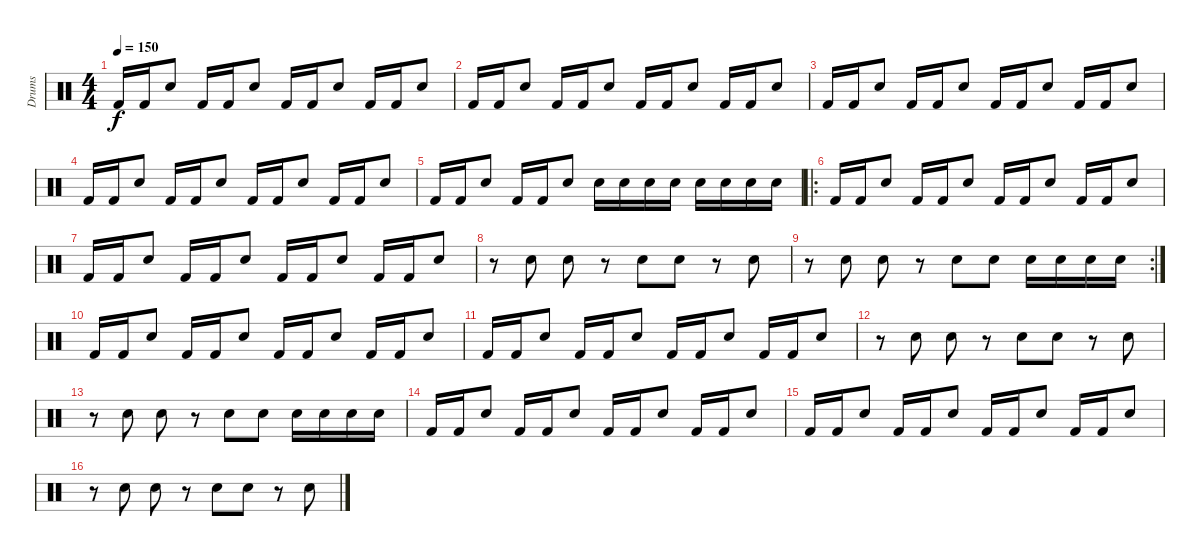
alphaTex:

\track ("Drums" "Drums") {instrument percussion}
\staff {score}
\articulation defaults
\ts (4 4)
\tempo 150
\clef neutral
\ks c "Kick (hit) 2".16{dy f} "Kick (hit) 2".16 "Snare (hit) 2".8 "Kick (hit) 2".16 "Kick (hit) 2".16 "Snare (hit) 2".8 "Kick (hit) 2".16 "Kick (hit) 2".16 "Snare (hit) 2".8 "Kick (hit) 2".16 "Kick (hit) 2".16 "Snare (hit) 2".8
|
"Kick (hit) 2".16 "Kick (hit) 2".16 "Snare (hit) 2".8 "Kick (hit) 2".16 "Kick (hit) 2".16 "Snare (hit) 2".8 "Kick (hit) 2".16 "Kick (hit) 2".16 "Snare (hit) 2".8 "Kick (hit) 2".16 "Kick (hit) 2".16 "Snare (hit) 2".8 |
"Kick (hit) 2".16 "Kick (hit) 2".16 "Snare (hit) 2".8 "Kick (hit) 2".16 "Kick (hit) 2".16 "Snare (hit) 2".8 "Kick (hit) 2".16 "Kick (hit) 2".16 "Snare (hit) 2".8 "Kick (hit) 2".16 "Kick (hit) 2".16 "Snare (hit) 2".8 |
"Kick (hit) 2".16 "Kick (hit) 2".16 "Snare (hit) 2".8 "Kick (hit) 2".16 "Kick (hit) 2".16 "Snare (hit) 2".8 "Kick (hit) 2".16 "Kick (hit) 2".16 "Snare (hit) 2".8 "Kick (hit) 2".16 "Kick (hit) 2".16 "Snare (hit) 2".8 |
"Kick (hit) 2".16 "Kick (hit) 2".16 "Snare (hit) 2".8 "Kick (hit) 2".16 "Kick (hit) 2".16 "Snare (hit) 2".8 "Snare (hit) 2".16 "Snare (hit) 2".16 "Snare (hit) 2".16 "Snare (hit) 2".16 "Snare (hit) 2".16 "Snare (hit) 2".16 "Snare (hit) 2".16 "Snare (hit) 2".16 |
\ro "Kick (hit) 2".16 "Kick (hit) 2".16 "Snare (hit) 2".8 "Kick (hit) 2".16 "Kick (hit) 2".16 "Snare (hit) 2".8 "Kick (hit) 2".16 "Kick (hit) 2".16 "Snare (hit) 2".8 "Kick (hit) 2".16 "Kick (hit) 2".16 "Snare (hit) 2".8
|
"Kick (hit) 2".16 "Kick (hit) 2".16 "Snare (hit) 2".8 "Kick (hit) 2".16 "Kick (hit) 2".16 "Snare (hit) 2".8 "Kick (hit) 2".16 "Kick (hit) 2".16 "Snare (hit) 2".8 "Kick (hit) 2".16 "Kick (hit) 2".16 "Snare (hit) 2".8 |
r.8 "Snare (hit) 2".8 "Snare (hit) 2".8 r.8 "Snare (hit) 2".8 "Snare (hit) 2".8 r.8 "Snare (hit) 2".8 |
\rc 2
r.8 "Snare (hit) 2".8 "Snare (hit) 2".8 r.8 "Snare (hit) 2".8 "Snare (hit) 2".8 "Snare (hit) 2".16 "Snare (hit) 2".16 "Snare (hit) 2".16 "Snare (hit) 2".16 |
"Kick (hit) 2".16 "Kick (hit) 2".16 "Snare (hit) 2".8 "Kick (hit) 2".16 "Kick (hit) 2".16 "Snare (hit) 2".8 "Kick (hit) 2".16 "Kick (hit) 2".16 "Snare (hit) 2".8 "Kick (hit) 2".16 "Kick (hit) 2".16 "Snare (hit) 2".8 |
"Kick (hit) 2".16 "Kick (hit) 2".16 "Snare (hit) 2".8 "Kick (hit) 2".16 "Kick (hit) 2".16 "Snare (hit) 2".8 "Kick (hit) 2".16 "Kick (hit) 2".16 "Snare (hit) 2".8 "Kick (hit) 2".16 "Kick (hit) 2".16 "Snare (hit) 2".8 |
r.8 "Snare (hit) 2".8 "Snare (hit) 2".8 r.8 "Snare (hit) 2".8 "Snare (hit) 2".8 r.8 "Snare (hit) 2".8 |
r.8 "Snare (hit) 2".8 "Snare (hit) 2".8 r.8 "Snare (hit) 2".8 "Snare (hit) 2".8 "Snare (hit) 2".16 "Snare (hit) 2".16 "Snare (hit) 2".16 "Snare (hit) 2".16 |
"Kick (hit) 2".16 "Kick (hit) 2".16 "Snare (hit) 2".8 "Kick (hit) 2".16 "Kick (hit) 2".16 "Snare (hit) 2".8 "Kick (hit) 2".16 "Kick (hit) 2".16 "Snare (hit) 2".8 "Kick (hit) 2".16 "Kick (hit) 2".16 "Snare (hit) 2".8 |
"Kick (hit) 2".16 "Kick (hit) 2".16 "Snare (hit) 2".8 "Kick (hit) 2".16 "Kick (hit) 2".16 "Snare (hit) 2".8 "Kick (hit) 2".16 "Kick (hit) 2".16 "Snare (hit) 2".8 "Kick (hit) 2".16 "Kick (hit) 2".16 "Snare (hit) 2".8 |
r.8 "Snare (hit) 2".8 "Snare (hit) 2".8 r.8 "Snare (hit) 2".8 "Snare (hit) 2".8 r.8 "Snare (hit) 2".8
